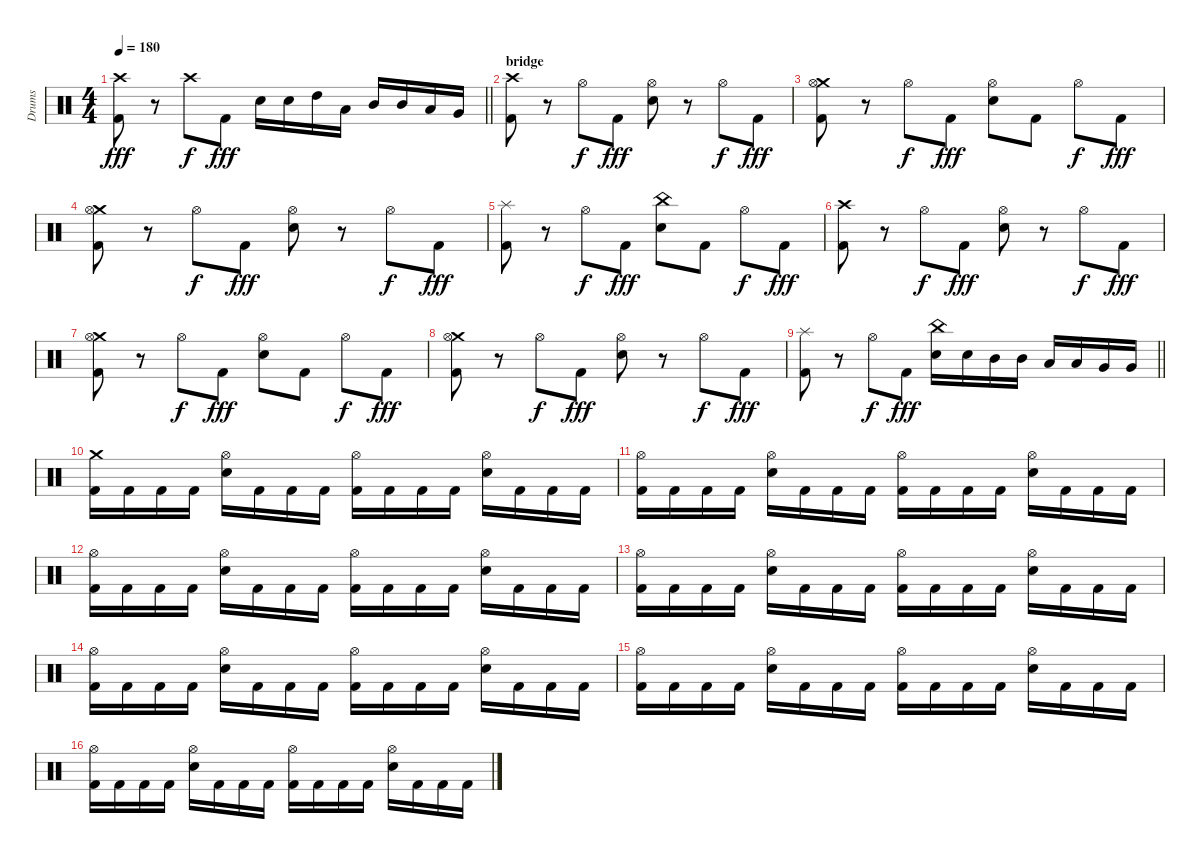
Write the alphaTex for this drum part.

\track ("Drums" "Drums") {instrument percussion}
\staff {score}
\articulation defaults
\ts (4 4)
\tempo 180
\clef neutral
\barLineRight lightlight
\ks c
("Crash high (hit)" "Kick (hit) 2").8{dy fff} r.8 "Crash high (hit)".8{dy f} "Kick (hit) 2".8{dy fff} "Electric Snare (hit)".16 "Electric Snare (hit)".16 "High Tom (hit)".16 "Low Tom (hit)".16 "Mid Tom (hit)".16 "Mid Tom (hit)".16 "Low Tom (hit)".16 "Very Low Tom (hit)".16 |
\section ("" "bridge")
("Crash high (hit)" "Kick (hit) 2").8 r.8 "Hi-Hat (open)".8{dy f} "Kick (hit) 2".8{dy fff} ("Hi-Hat (open)" "Electric Snare (hit)").8 r.8 "Hi-Hat (open)".8{dy f} "Kick (hit) 2".8{dy fff} |
("Crash medium (hit)" "Hi-Hat (open)" "Kick (hit) 2").8 r.8 "Hi-Hat (open)".8{dy f} "Kick (hit) 2".8{dy fff} ("Hi-Hat (open)" "Electric Snare (hit)").8 "Kick (hit) 2".8 "Hi-Hat (open)".8{dy f} "Kick (hit) 2".8{dy fff} |
("Crash medium (hit)" "Hi-Hat (open)" "Kick (hit) 2").8 r.8 "Hi-Hat (open)".8{dy f} "Kick (hit) 2".8{dy fff} ("Hi-Hat (open)" "Electric Snare (hit)").8 r.8 "Hi-Hat (open)".8{dy f} "Kick (hit) 2".8{dy fff} |
("Splash (hit)" "Kick (hit) 2").8 r.8 "Hi-Hat (open)".8{dy f} "Kick (hit) 2".8{dy fff} ("China (hit)" "Electric Snare (hit)").8 "Kick (hit) 2".8 "Hi-Hat (open)".8{dy f} "Kick (hit) 2".8{dy fff} |
("Crash high (hit)" "Kick (hit) 2").8 r.8 "Hi-Hat (open)".8{dy f} "Kick (hit) 2".8{dy fff} ("Hi-Hat (open)" "Electric Snare (hit)").8 r.8 "Hi-Hat (open)".8{dy f} "Kick (hit) 2".8{dy fff} |
("Crash medium (hit)" "Hi-Hat (open)" "Kick (hit) 2").8 r.8 "Hi-Hat (open)".8{dy f} "Kick (hit) 2".8{dy fff} ("Hi-Hat (open)" "Electric Snare (hit)").8 "Kick (hit) 2".8 "Hi-Hat (open)".8{dy f} "Kick (hit) 2".8{dy fff} |
("Crash medium (hit)" "Hi-Hat (open)" "Kick (hit) 2").8 r.8 "Hi-Hat (open)".8{dy f} "Kick (hit) 2".8{dy fff} ("Hi-Hat (open)" "Electric Snare (hit)").8 r.8 "Hi-Hat (open)".8{dy f} "Kick (hit) 2".8{dy fff} |
\barLineRight lightlight
("Splash (hit)" "Kick (hit) 2").8 r.8 "Hi-Hat (open)".8{dy f} "Kick (hit) 2".8{dy fff} ("China (hit)" "Electric Snare (hit)").16 "Electric Snare (hit)".16 "Mid Tom (hit)".16 "Mid Tom (hit)".16 "Low Tom (hit)".16 "Low Tom (hit)".16 "Very Low Tom (hit)".16 "Very Low Tom (hit)".16 |
\section ("" "")
("Crash medium (hit)" "Kick (hit) 2").16 "Kick (hit) 2".16 "Kick (hit) 2".16 "Kick (hit) 2".16 ("Hi-Hat (open)" "Electric Snare (hit)").16 "Kick (hit) 2".16 "Kick (hit) 2".16 "Kick (hit) 2".16 ("Hi-Hat (open)" "Kick (hit) 2").16 "Kick (hit) 2".16 "Kick (hit) 2".16 "Kick (hit) 2".16 ("Hi-Hat (open)" "Electric Snare (hit)").16 "Kick (hit) 2".16 "Kick (hit) 2".16 "Kick (hit) 2".16 |
("Hi-Hat (open)" "Kick (hit) 2").16 "Kick (hit) 2".16 "Kick (hit) 2".16 "Kick (hit) 2".16 ("Hi-Hat (open)" "Electric Snare (hit)").16 "Kick (hit) 2".16 "Kick (hit) 2".16 "Kick (hit) 2".16 ("Hi-Hat (open)" "Kick (hit) 2").16 "Kick (hit) 2".16 "Kick (hit) 2".16 "Kick (hit) 2".16 ("Hi-Hat (open)" "Electric Snare (hit)").16 "Kick (hit) 2".16 "Kick (hit) 2".16 "Kick (hit) 2".16 |
("Hi-Hat (open)" "Kick (hit) 2").16 "Kick (hit) 2".16 "Kick (hit) 2".16 "Kick (hit) 2".16 ("Hi-Hat (open)" "Electric Snare (hit)").16 "Kick (hit) 2".16 "Kick (hit) 2".16 "Kick (hit) 2".16 ("Hi-Hat (open)" "Kick (hit) 2").16 "Kick (hit) 2".16 "Kick (hit) 2".16 "Kick (hit) 2".16 ("Hi-Hat (open)" "Electric Snare (hit)").16 "Kick (hit) 2".16 "Kick (hit) 2".16 "Kick (hit) 2".16 |
("Hi-Hat (open)" "Kick (hit) 2").16 "Kick (hit) 2".16 "Kick (hit) 2".16 "Kick (hit) 2".16 ("Hi-Hat (open)" "Electric Snare (hit)").16 "Kick (hit) 2".16 "Kick (hit) 2".16 "Kick (hit) 2".16 ("Hi-Hat (open)" "Kick (hit) 2").16 "Kick (hit) 2".16 "Kick (hit) 2".16 "Kick (hit) 2".16 ("Hi-Hat (open)" "Electric Snare (hit)").16 "Kick (hit) 2".16 "Kick (hit) 2".16 "Kick (hit) 2".16 |
("Hi-Hat (open)" "Kick (hit) 2").16 "Kick (hit) 2".16 "Kick (hit) 2".16 "Kick (hit) 2".16 ("Hi-Hat (open)" "Electric Snare (hit)").16 "Kick (hit) 2".16 "Kick (hit) 2".16 "Kick (hit) 2".16 ("Hi-Hat (open)" "Kick (hit) 2").16 "Kick (hit) 2".16 "Kick (hit) 2".16 "Kick (hit) 2".16 ("Hi-Hat (open)" "Electric Snare (hit)").16 "Kick (hit) 2".16 "Kick (hit) 2".16 "Kick (hit) 2".16 |
("Hi-Hat (open)" "Kick (hit) 2").16 "Kick (hit) 2".16 "Kick (hit) 2".16 "Kick (hit) 2".16 ("Hi-Hat (open)" "Electric Snare (hit)").16 "Kick (hit) 2".16 "Kick (hit) 2".16 "Kick (hit) 2".16 ("Hi-Hat (open)" "Kick (hit) 2").16 "Kick (hit) 2".16 "Kick (hit) 2".16 "Kick (hit) 2".16 ("Hi-Hat (open)" "Electric Snare (hit)").16 "Kick (hit) 2".16 "Kick (hit) 2".16 "Kick (hit) 2".16 |
("Hi-Hat (open)" "Kick (hit) 2").16 "Kick (hit) 2".16 "Kick (hit) 2".16 "Kick (hit) 2".16 ("Hi-Hat (open)" "Electric Snare (hit)").16 "Kick (hit) 2".16 "Kick (hit) 2".16 "Kick (hit) 2".16 ("Hi-Hat (open)" "Kick (hit) 2").16 "Kick (hit) 2".16 "Kick (hit) 2".16 "Kick (hit) 2".16 ("Hi-Hat (open)" "Electric Snare (hit)").16 "Kick (hit) 2".16 "Kick (hit) 2".16 "Kick (hit) 2".16
